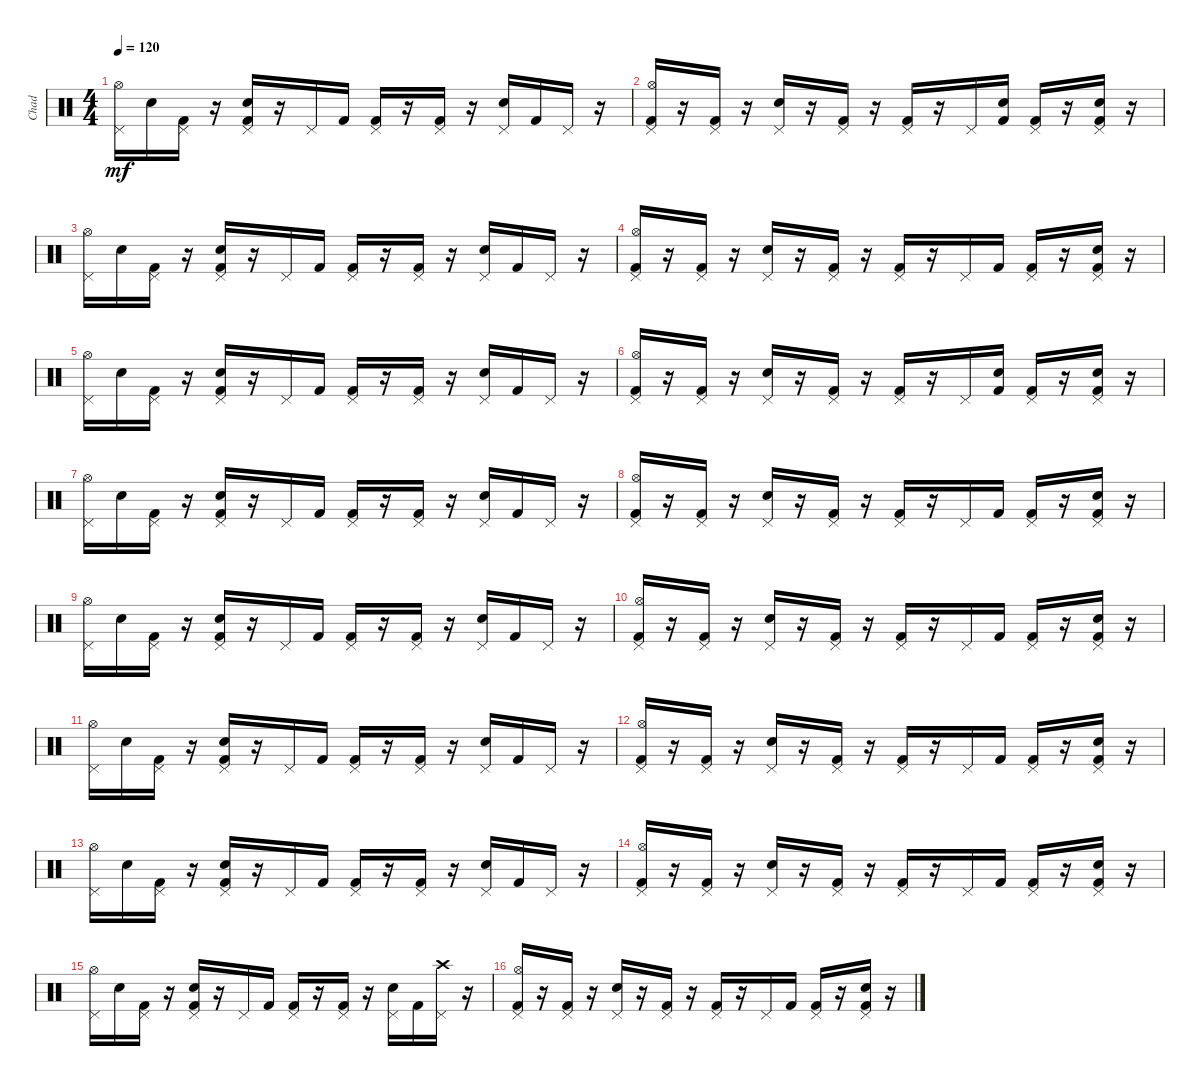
\track ("Chad" "Chad") {instrument percussion}
\staff {score}
\articulation defaults
\ts (4 4)
\tempo 120
\clef neutral
\ks c
("Pedal Hi-Hat (hit)" "Hi-Hat (open)").16{dy mf} "Snare (hit) 2".16 ("Kick (hit) 2" "Pedal Hi-Hat (hit)").16 r.16 ("Kick (hit) 2" "Snare (hit) 2" "Pedal Hi-Hat (hit)").16 r.16 "Pedal Hi-Hat (hit)".16 "Kick (hit) 2".16 ("Kick (hit) 2" "Pedal Hi-Hat (hit)").16 r.16 ("Kick (hit) 2" "Pedal Hi-Hat (hit)").16 r.16 ("Snare (hit) 2" "Pedal Hi-Hat (hit)").16 "Kick (hit) 2".16 "Pedal Hi-Hat (hit)".16 r.16 |
("Kick (hit) 2" "Pedal Hi-Hat (hit)" "Hi-Hat (open)").16 r.16 ("Kick (hit) 2" "Pedal Hi-Hat (hit)").16 r.16 ("Snare (hit) 2" "Pedal Hi-Hat (hit)").16 r.16 ("Kick (hit) 2" "Pedal Hi-Hat (hit)").16 r.16 ("Kick (hit) 2" "Pedal Hi-Hat (hit)").16 r.16 "Pedal Hi-Hat (hit)".16 ("Kick (hit) 2" "Snare (hit) 2").16 ("Kick (hit) 2" "Pedal Hi-Hat (hit)").16 r.16 ("Kick (hit) 2" "Snare (hit) 2" "Pedal Hi-Hat (hit)").16 r.16 |
("Pedal Hi-Hat (hit)" "Hi-Hat (open)").16 "Snare (hit) 2".16 ("Kick (hit) 2" "Pedal Hi-Hat (hit)").16 r.16 ("Kick (hit) 2" "Snare (hit) 2" "Pedal Hi-Hat (hit)").16 r.16 "Pedal Hi-Hat (hit)".16 "Kick (hit) 2".16 ("Kick (hit) 2" "Pedal Hi-Hat (hit)").16 r.16 ("Kick (hit) 2" "Pedal Hi-Hat (hit)").16 r.16 ("Snare (hit) 2" "Pedal Hi-Hat (hit)").16 "Kick (hit) 2".16 "Pedal Hi-Hat (hit)".16 r.16 |
("Kick (hit) 2" "Pedal Hi-Hat (hit)" "Hi-Hat (open)").16 r.16 ("Kick (hit) 2" "Pedal Hi-Hat (hit)").16 r.16 ("Snare (hit) 2" "Pedal Hi-Hat (hit)").16 r.16 ("Kick (hit) 2" "Pedal Hi-Hat (hit)").16 r.16 ("Kick (hit) 2" "Pedal Hi-Hat (hit)").16 r.16 "Pedal Hi-Hat (hit)".16 "Kick (hit) 2".16 ("Kick (hit) 2" "Pedal Hi-Hat (hit)").16 r.16 ("Kick (hit) 2" "Snare (hit) 2" "Pedal Hi-Hat (hit)").16 r.16 |
("Pedal Hi-Hat (hit)" "Hi-Hat (open)").16 "Snare (hit) 2".16 ("Kick (hit) 2" "Pedal Hi-Hat (hit)").16 r.16 ("Kick (hit) 2" "Snare (hit) 2" "Pedal Hi-Hat (hit)").16 r.16 "Pedal Hi-Hat (hit)".16 "Kick (hit) 2".16 ("Kick (hit) 2" "Pedal Hi-Hat (hit)").16 r.16 ("Kick (hit) 2" "Pedal Hi-Hat (hit)").16 r.16 ("Snare (hit) 2" "Pedal Hi-Hat (hit)").16 "Kick (hit) 2".16 "Pedal Hi-Hat (hit)".16 r.16 |
("Kick (hit) 2" "Pedal Hi-Hat (hit)" "Hi-Hat (open)").16 r.16 ("Kick (hit) 2" "Pedal Hi-Hat (hit)").16 r.16 ("Snare (hit) 2" "Pedal Hi-Hat (hit)").16 r.16 ("Kick (hit) 2" "Pedal Hi-Hat (hit)").16 r.16 ("Kick (hit) 2" "Pedal Hi-Hat (hit)").16 r.16 "Pedal Hi-Hat (hit)".16 ("Kick (hit) 2" "Snare (hit) 2").16 ("Kick (hit) 2" "Pedal Hi-Hat (hit)").16 r.16 ("Kick (hit) 2" "Snare (hit) 2" "Pedal Hi-Hat (hit)").16 r.16 |
("Pedal Hi-Hat (hit)" "Hi-Hat (open)").16 "Snare (hit) 2".16 ("Kick (hit) 2" "Pedal Hi-Hat (hit)").16 r.16 ("Kick (hit) 2" "Snare (hit) 2" "Pedal Hi-Hat (hit)").16 r.16 "Pedal Hi-Hat (hit)".16 "Kick (hit) 2".16 ("Kick (hit) 2" "Pedal Hi-Hat (hit)").16 r.16 ("Kick (hit) 2" "Pedal Hi-Hat (hit)").16 r.16 ("Snare (hit) 2" "Pedal Hi-Hat (hit)").16 "Kick (hit) 2".16 "Pedal Hi-Hat (hit)".16 r.16 |
("Kick (hit) 2" "Pedal Hi-Hat (hit)" "Hi-Hat (open)").16 r.16 ("Kick (hit) 2" "Pedal Hi-Hat (hit)").16 r.16 ("Snare (hit) 2" "Pedal Hi-Hat (hit)").16 r.16 ("Kick (hit) 2" "Pedal Hi-Hat (hit)").16 r.16 ("Kick (hit) 2" "Pedal Hi-Hat (hit)").16 r.16 "Pedal Hi-Hat (hit)".16 "Kick (hit) 2".16 ("Kick (hit) 2" "Pedal Hi-Hat (hit)").16 r.16 ("Kick (hit) 2" "Snare (hit) 2" "Pedal Hi-Hat (hit)").16 r.16 |
("Pedal Hi-Hat (hit)" "Hi-Hat (open)").16 "Snare (hit) 2".16 ("Kick (hit) 2" "Pedal Hi-Hat (hit)").16 r.16 ("Kick (hit) 2" "Snare (hit) 2" "Pedal Hi-Hat (hit)").16 r.16 "Pedal Hi-Hat (hit)".16 "Kick (hit) 2".16 ("Kick (hit) 2" "Pedal Hi-Hat (hit)").16 r.16 ("Kick (hit) 2" "Pedal Hi-Hat (hit)").16 r.16 ("Snare (hit) 2" "Pedal Hi-Hat (hit)").16 "Kick (hit) 2".16 "Pedal Hi-Hat (hit)".16 r.16 |
("Kick (hit) 2" "Pedal Hi-Hat (hit)" "Hi-Hat (open)").16 r.16 ("Kick (hit) 2" "Pedal Hi-Hat (hit)").16 r.16 ("Snare (hit) 2" "Pedal Hi-Hat (hit)").16 r.16 ("Kick (hit) 2" "Pedal Hi-Hat (hit)").16 r.16 ("Kick (hit) 2" "Pedal Hi-Hat (hit)").16 r.16 "Pedal Hi-Hat (hit)".16 "Kick (hit) 2".16 ("Kick (hit) 2" "Pedal Hi-Hat (hit)").16 r.16 ("Kick (hit) 2" "Snare (hit) 2" "Pedal Hi-Hat (hit)").16 r.16 |
("Pedal Hi-Hat (hit)" "Hi-Hat (open)").16 "Snare (hit) 2".16 ("Kick (hit) 2" "Pedal Hi-Hat (hit)").16 r.16 ("Kick (hit) 2" "Snare (hit) 2" "Pedal Hi-Hat (hit)").16 r.16 "Pedal Hi-Hat (hit)".16 "Kick (hit) 2".16 ("Kick (hit) 2" "Pedal Hi-Hat (hit)").16 r.16 ("Kick (hit) 2" "Pedal Hi-Hat (hit)").16 r.16 ("Snare (hit) 2" "Pedal Hi-Hat (hit)").16 "Kick (hit) 2".16 "Pedal Hi-Hat (hit)".16 r.16 |
("Kick (hit) 2" "Pedal Hi-Hat (hit)" "Hi-Hat (open)").16 r.16 ("Kick (hit) 2" "Pedal Hi-Hat (hit)").16 r.16 ("Snare (hit) 2" "Pedal Hi-Hat (hit)").16 r.16 ("Kick (hit) 2" "Pedal Hi-Hat (hit)").16 r.16 ("Kick (hit) 2" "Pedal Hi-Hat (hit)").16 r.16 "Pedal Hi-Hat (hit)".16 "Kick (hit) 2".16 ("Kick (hit) 2" "Pedal Hi-Hat (hit)").16 r.16 ("Kick (hit) 2" "Snare (hit) 2" "Pedal Hi-Hat (hit)").16 r.16 |
("Pedal Hi-Hat (hit)" "Hi-Hat (open)").16 "Snare (hit) 2".16 ("Kick (hit) 2" "Pedal Hi-Hat (hit)").16 r.16 ("Kick (hit) 2" "Snare (hit) 2" "Pedal Hi-Hat (hit)").16 r.16 "Pedal Hi-Hat (hit)".16 "Kick (hit) 2".16 ("Kick (hit) 2" "Pedal Hi-Hat (hit)").16 r.16 ("Kick (hit) 2" "Pedal Hi-Hat (hit)").16 r.16 ("Snare (hit) 2" "Pedal Hi-Hat (hit)").16 "Kick (hit) 2".16 "Pedal Hi-Hat (hit)".16 r.16 |
("Kick (hit) 2" "Pedal Hi-Hat (hit)" "Hi-Hat (open)").16 r.16 ("Kick (hit) 2" "Pedal Hi-Hat (hit)").16 r.16 ("Snare (hit) 2" "Pedal Hi-Hat (hit)").16 r.16 ("Kick (hit) 2" "Pedal Hi-Hat (hit)").16 r.16 ("Kick (hit) 2" "Pedal Hi-Hat (hit)").16 r.16 "Pedal Hi-Hat (hit)".16 "Kick (hit) 2".16 ("Kick (hit) 2" "Pedal Hi-Hat (hit)").16 r.16 ("Kick (hit) 2" "Snare (hit) 2" "Pedal Hi-Hat (hit)").16 r.16 |
("Pedal Hi-Hat (hit)" "Hi-Hat (open)").16 "Snare (hit) 2".16 ("Kick (hit) 2" "Pedal Hi-Hat (hit)").16 r.16 ("Kick (hit) 2" "Snare (hit) 2" "Pedal Hi-Hat (hit)").16 r.16 "Pedal Hi-Hat (hit)".16 "Kick (hit) 2".16 ("Kick (hit) 2" "Pedal Hi-Hat (hit)").16 r.16 ("Kick (hit) 2" "Pedal Hi-Hat (hit)").16 r.16 ("Snare (hit) 2" "Pedal Hi-Hat (hit)").16 "Kick (hit) 2".16 ("Pedal Hi-Hat (hit)" "Crash high (hit)").16 r.16 |
("Kick (hit) 2" "Pedal Hi-Hat (hit)" "Hi-Hat (open)").16 r.16 ("Kick (hit) 2" "Pedal Hi-Hat (hit)").16 r.16 ("Snare (hit) 2" "Pedal Hi-Hat (hit)").16 r.16 ("Kick (hit) 2" "Pedal Hi-Hat (hit)").16 r.16 ("Kick (hit) 2" "Pedal Hi-Hat (hit)").16 r.16 "Pedal Hi-Hat (hit)".16 "Kick (hit) 2".16 ("Kick (hit) 2" "Pedal Hi-Hat (hit)").16 r.16 ("Kick (hit) 2" "Snare (hit) 2" "Pedal Hi-Hat (hit)").16 r.16
